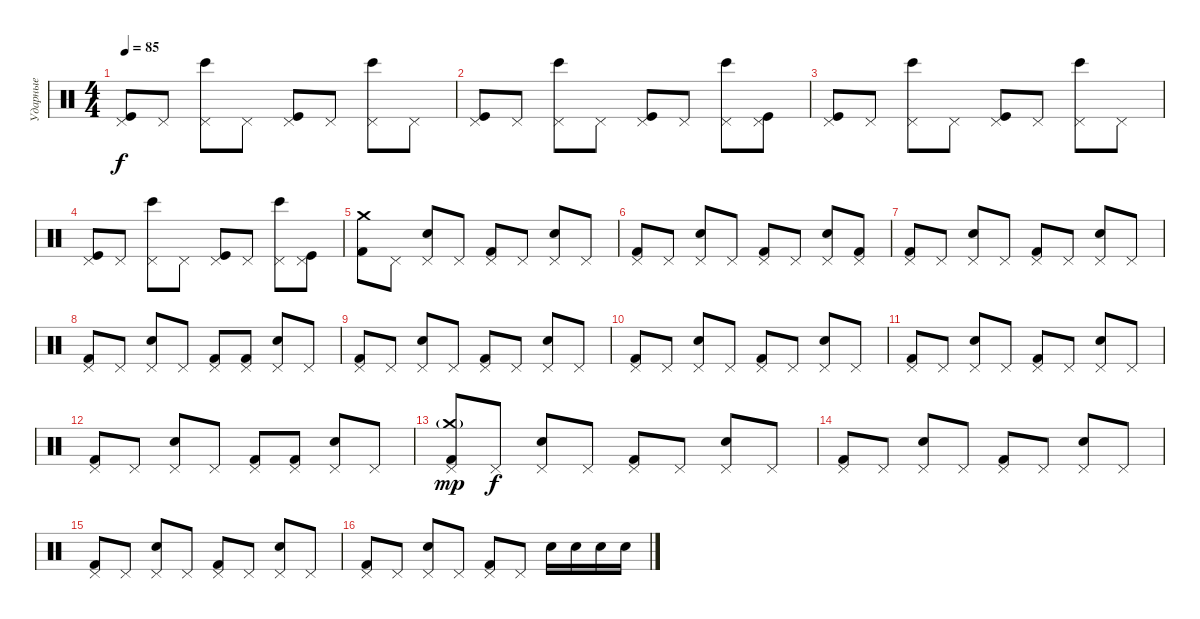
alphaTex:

\track ("Ударные" "Ударные") {instrument percussion}
\staff {score}
\articulation defaults
\ts (4 4)
\tempo 85
\clef neutral
\ks c
("Pedal Hi-Hat (hit)" "Kick (hit)").8{dy f} "Pedal Hi-Hat (hit)".8 ("Pedal Hi-Hat (hit)" "Bongo High (hit)").8 "Pedal Hi-Hat (hit)".8 ("Pedal Hi-Hat (hit)" "Kick (hit)").8 "Pedal Hi-Hat (hit)".8 ("Pedal Hi-Hat (hit)" "Bongo High (hit)").8 "Pedal Hi-Hat (hit)".8 |
("Pedal Hi-Hat (hit)" "Kick (hit)").8 "Pedal Hi-Hat (hit)".8 ("Pedal Hi-Hat (hit)" "Bongo High (hit)").8 "Pedal Hi-Hat (hit)".8 ("Pedal Hi-Hat (hit)" "Kick (hit)").8 "Pedal Hi-Hat (hit)".8 ("Pedal Hi-Hat (hit)" "Bongo High (hit)").8 ("Pedal Hi-Hat (hit)" "Kick (hit)").8 |
("Pedal Hi-Hat (hit)" "Kick (hit)").8 "Pedal Hi-Hat (hit)".8 ("Pedal Hi-Hat (hit)" "Bongo High (hit)").8 "Pedal Hi-Hat (hit)".8 ("Pedal Hi-Hat (hit)" "Kick (hit)").8 "Pedal Hi-Hat (hit)".8 ("Pedal Hi-Hat (hit)" "Bongo High (hit)").8 "Pedal Hi-Hat (hit)".8 |
("Pedal Hi-Hat (hit)" "Kick (hit)").8 "Pedal Hi-Hat (hit)".8 ("Pedal Hi-Hat (hit)" "Bongo High (hit)").8 "Pedal Hi-Hat (hit)".8 ("Pedal Hi-Hat (hit)" "Kick (hit)").8 "Pedal Hi-Hat (hit)".8 ("Pedal Hi-Hat (hit)" "Bongo High (hit)").8 ("Pedal Hi-Hat (hit)" "Kick (hit)").8 |
("Crash medium (hit)" "Kick (hit) 2").8 "Pedal Hi-Hat (hit)".8 ("Pedal Hi-Hat (hit)" "Electric Snare (hit)").8 "Pedal Hi-Hat (hit)".8 ("Pedal Hi-Hat (hit)" "Kick (hit) 2").8 "Pedal Hi-Hat (hit)".8 ("Pedal Hi-Hat (hit)" "Electric Snare (hit)").8 "Pedal Hi-Hat (hit)".8 |
("Pedal Hi-Hat (hit)" "Kick (hit) 2").8 "Pedal Hi-Hat (hit)".8 ("Pedal Hi-Hat (hit)" "Electric Snare (hit)").8 "Pedal Hi-Hat (hit)".8 ("Pedal Hi-Hat (hit)" "Kick (hit) 2").8 "Pedal Hi-Hat (hit)".8 ("Pedal Hi-Hat (hit)" "Electric Snare (hit)").8 ("Pedal Hi-Hat (hit)" "Kick (hit) 2").8 |
("Pedal Hi-Hat (hit)" "Kick (hit) 2").8 "Pedal Hi-Hat (hit)".8 ("Pedal Hi-Hat (hit)" "Electric Snare (hit)").8 "Pedal Hi-Hat (hit)".8 ("Pedal Hi-Hat (hit)" "Kick (hit) 2").8 "Pedal Hi-Hat (hit)".8 ("Pedal Hi-Hat (hit)" "Electric Snare (hit)").8 "Pedal Hi-Hat (hit)".8 |
("Pedal Hi-Hat (hit)" "Kick (hit) 2").8 "Pedal Hi-Hat (hit)".8 ("Pedal Hi-Hat (hit)" "Electric Snare (hit)").8 "Pedal Hi-Hat (hit)".8 ("Pedal Hi-Hat (hit)" "Kick (hit) 2").8 ("Pedal Hi-Hat (hit)" "Kick (hit) 2").8 ("Pedal Hi-Hat (hit)" "Electric Snare (hit)").8 "Pedal Hi-Hat (hit)".8 |
("Pedal Hi-Hat (hit)" "Kick (hit) 2").8 "Pedal Hi-Hat (hit)".8 ("Pedal Hi-Hat (hit)" "Electric Snare (hit)").8 "Pedal Hi-Hat (hit)".8 ("Pedal Hi-Hat (hit)" "Kick (hit) 2").8 "Pedal Hi-Hat (hit)".8 ("Pedal Hi-Hat (hit)" "Electric Snare (hit)").8 "Pedal Hi-Hat (hit)".8 |
("Pedal Hi-Hat (hit)" "Kick (hit) 2").8 "Pedal Hi-Hat (hit)".8 ("Pedal Hi-Hat (hit)" "Electric Snare (hit)").8 "Pedal Hi-Hat (hit)".8 ("Pedal Hi-Hat (hit)" "Kick (hit) 2").8 "Pedal Hi-Hat (hit)".8 ("Pedal Hi-Hat (hit)" "Electric Snare (hit)").8 "Pedal Hi-Hat (hit)".8 |
("Pedal Hi-Hat (hit)" "Kick (hit) 2").8 "Pedal Hi-Hat (hit)".8 ("Pedal Hi-Hat (hit)" "Electric Snare (hit)").8 "Pedal Hi-Hat (hit)".8 ("Pedal Hi-Hat (hit)" "Kick (hit) 2").8 "Pedal Hi-Hat (hit)".8 ("Pedal Hi-Hat (hit)" "Electric Snare (hit)").8 "Pedal Hi-Hat (hit)".8 |
("Pedal Hi-Hat (hit)" "Kick (hit) 2").8 "Pedal Hi-Hat (hit)".8 ("Pedal Hi-Hat (hit)" "Electric Snare (hit)").8 "Pedal Hi-Hat (hit)".8 ("Pedal Hi-Hat (hit)" "Kick (hit) 2").8 ("Pedal Hi-Hat (hit)" "Kick (hit) 2").8 ("Pedal Hi-Hat (hit)" "Electric Snare (hit)").8 "Pedal Hi-Hat (hit)".8 |
("Crash medium (hit)"{g} "Pedal Hi-Hat (hit)" "Kick (hit) 2").8{dy mp} "Pedal Hi-Hat (hit)".8{dy f} ("Pedal Hi-Hat (hit)" "Electric Snare (hit)").8 "Pedal Hi-Hat (hit)".8 ("Pedal Hi-Hat (hit)" "Kick (hit) 2").8 "Pedal Hi-Hat (hit)".8 ("Pedal Hi-Hat (hit)" "Electric Snare (hit)").8 "Pedal Hi-Hat (hit)".8 |
("Pedal Hi-Hat (hit)" "Kick (hit) 2").8 "Pedal Hi-Hat (hit)".8 ("Pedal Hi-Hat (hit)" "Electric Snare (hit)").8 "Pedal Hi-Hat (hit)".8 ("Pedal Hi-Hat (hit)" "Kick (hit) 2").8 "Pedal Hi-Hat (hit)".8 ("Pedal Hi-Hat (hit)" "Electric Snare (hit)").8 "Pedal Hi-Hat (hit)".8 |
("Pedal Hi-Hat (hit)" "Kick (hit) 2").8 "Pedal Hi-Hat (hit)".8 ("Pedal Hi-Hat (hit)" "Electric Snare (hit)").8 "Pedal Hi-Hat (hit)".8 ("Pedal Hi-Hat (hit)" "Kick (hit) 2").8 "Pedal Hi-Hat (hit)".8 ("Pedal Hi-Hat (hit)" "Electric Snare (hit)").8 "Pedal Hi-Hat (hit)".8 |
("Pedal Hi-Hat (hit)" "Kick (hit) 2").8 "Pedal Hi-Hat (hit)".8 ("Pedal Hi-Hat (hit)" "Electric Snare (hit)").8 "Pedal Hi-Hat (hit)".8 ("Pedal Hi-Hat (hit)" "Kick (hit) 2").8 "Pedal Hi-Hat (hit)".8 "Electric Snare (hit)".16 "Electric Snare (hit)".16 "Electric Snare (hit)".16 "Electric Snare (hit)".16
